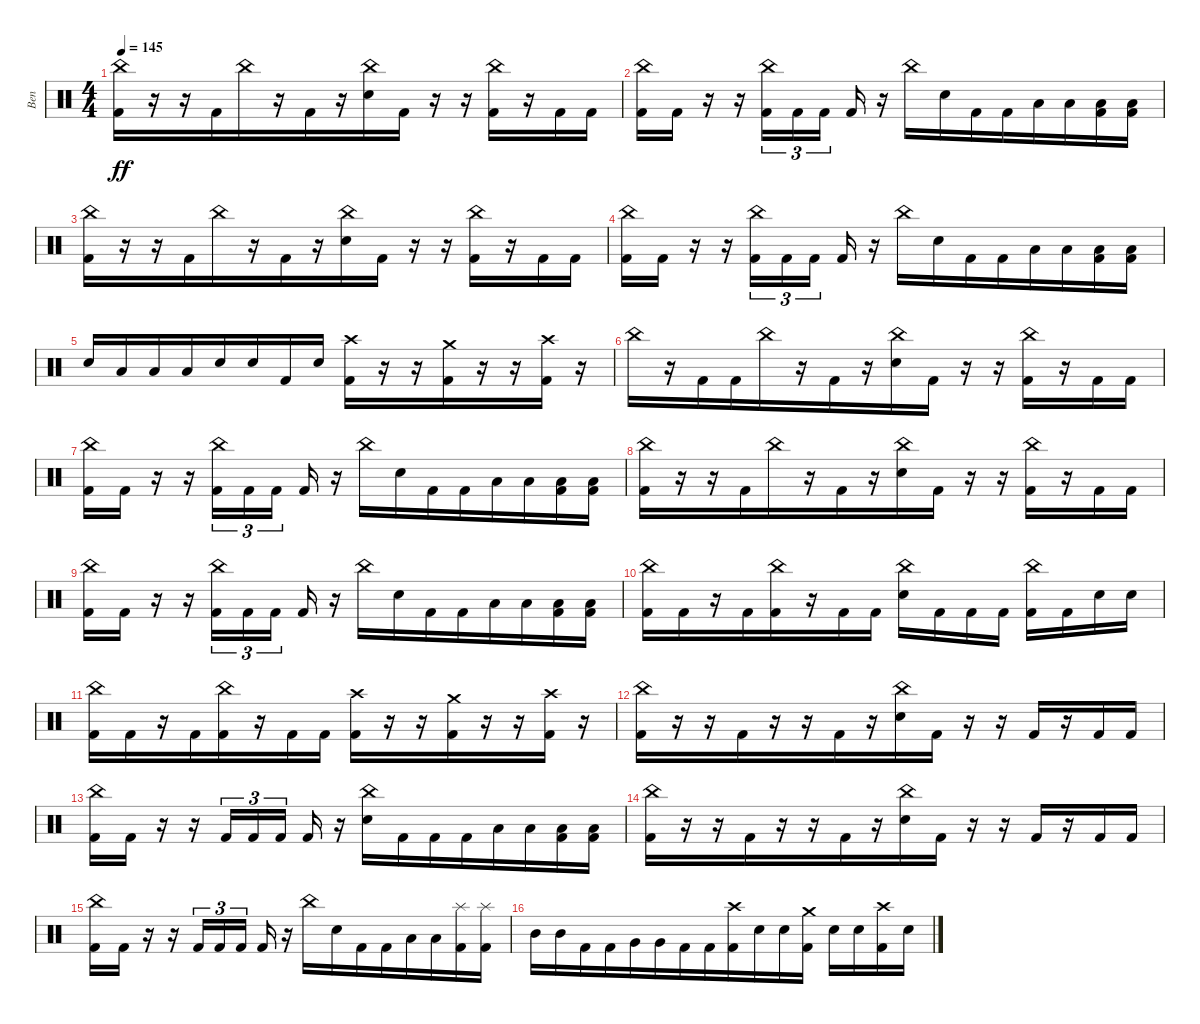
\track ("Ben" "Ben") {instrument percussion}
\staff {score}
\articulation defaults
\ts (4 4)
\tempo 145
\clef neutral
\ks c
("Kick (hit) 2" "China (hit)").16{dy ff} r.16{beam merge} r.16{beam merge} "Kick (hit) 2".16{beam merge} "China (hit)".16 r.16{beam merge} "Kick (hit) 2".16{beam merge} r.16{beam merge} ("China (hit)" "Electric Snare (hit)").16{beam merge} "Kick (hit) 2".16 r.16{beam merge} r.16{beam merge} ("Kick (hit) 2" "China (hit)").16 r.16 "Kick (hit) 2".16{beam merge} "Kick (hit) 2".16 |
("Kick (hit) 2" "China (hit)").16{beam merge} "Kick (hit) 2".16 r.16{beam merge} r.16 ("Kick (hit) 2" "China (hit)").16{tu (3 2)} "Kick (hit) 2".16{tu (3 2) beam merge} "Kick (hit) 2".16{tu (3 2) beam splitsecondary} "Kick (hit) 2".16 r.16{beam merge} "China (hit)".16{beam merge} "Electric Snare (hit)".16{beam merge} "Kick (hit) 2".16 "Kick (hit) 2".16{beam merge} "Low Tom (hit)".16 "Low Tom (hit)".16{beam merge} ("Low Floor Tom (hit)" "Kick (hit) 2").16{beam merge} ("Low Floor Tom (hit)" "Kick (hit) 2").16 |
("Kick (hit) 2" "China (hit)").16 r.16{beam merge} r.16{beam merge} "Kick (hit) 2".16{beam merge} "China (hit)".16 r.16{beam merge} "Kick (hit) 2".16{beam merge} r.16{beam merge} ("China (hit)" "Electric Snare (hit)").16{beam merge} "Kick (hit) 2".16 r.16{beam merge} r.16{beam merge} ("Kick (hit) 2" "China (hit)").16 r.16 "Kick (hit) 2".16{beam merge} "Kick (hit) 2".16 |
("Kick (hit) 2" "China (hit)").16{beam merge} "Kick (hit) 2".16 r.16{beam merge} r.16 ("Kick (hit) 2" "China (hit)").16{tu (3 2)} "Kick (hit) 2".16{tu (3 2) beam merge} "Kick (hit) 2".16{tu (3 2) beam splitsecondary} "Kick (hit) 2".16 r.16{beam merge} "China (hit)".16{beam merge} "Electric Snare (hit)".16{beam merge} "Kick (hit) 2".16 "Kick (hit) 2".16{beam merge} "Low Tom (hit)".16 "Low Tom (hit)".16{beam merge} ("Low Floor Tom (hit)" "Kick (hit) 2").16{beam merge} ("Low Floor Tom (hit)" "Kick (hit) 2").16 |
"Electric Snare (hit)".16{beam merge} "Low Tom (hit)".16 "Low Tom (hit)".16{beam merge} "Low Floor Tom (hit)".16{beam merge} "Electric Snare (hit)".16{beam merge} "Electric Snare (hit)".16 "Kick (hit) 2".16{beam merge} "Electric Snare (hit)".16 ("Crash high (hit)" "Kick (hit) 2").16{beam merge} r.16 r.16 ("Crash medium (hit)" "Kick (hit) 2").16{beam merge} r.16{beam merge} r.16 ("Crash high (hit)" "Kick (hit) 2").16 r.16 |
"China (hit)".16 r.16{beam merge} "Kick (hit) 2".16{beam merge} "Kick (hit) 2".16{beam merge} "China (hit)".16 r.16{beam merge} "Kick (hit) 2".16{beam merge} r.16{beam merge} ("China (hit)" "Electric Snare (hit)").16{beam merge} "Kick (hit) 2".16 r.16{beam merge} r.16{beam merge} ("Kick (hit) 2" "China (hit)").16 r.16 "Kick (hit) 2".16{beam merge} "Kick (hit) 2".16 |
("Kick (hit) 2" "China (hit)").16{beam merge} "Kick (hit) 2".16 r.16{beam merge} r.16 ("Kick (hit) 2" "China (hit)").16{tu (3 2)} "Kick (hit) 2".16{tu (3 2) beam merge} "Kick (hit) 2".16{tu (3 2) beam splitsecondary} "Kick (hit) 2".16 r.16{beam merge} "China (hit)".16{beam merge} "Electric Snare (hit)".16{beam merge} "Kick (hit) 2".16 "Kick (hit) 2".16{beam merge} "Low Tom (hit)".16 "Low Tom (hit)".16{beam merge} ("Low Floor Tom (hit)" "Kick (hit) 2").16{beam merge} ("Low Floor Tom (hit)" "Kick (hit) 2").16 |
("Kick (hit) 2" "China (hit)").16 r.16{beam merge} r.16{beam merge} "Kick (hit) 2".16{beam merge} "China (hit)".16 r.16{beam merge} "Kick (hit) 2".16{beam merge} r.16{beam merge} ("China (hit)" "Electric Snare (hit)").16{beam merge} "Kick (hit) 2".16 r.16{beam merge} r.16{beam merge} ("Kick (hit) 2" "China (hit)").16 r.16 "Kick (hit) 2".16{beam merge} "Kick (hit) 2".16 |
("Kick (hit) 2" "China (hit)").16{beam merge} "Kick (hit) 2".16 r.16{beam merge} r.16 ("Kick (hit) 2" "China (hit)").16{tu (3 2)} "Kick (hit) 2".16{tu (3 2) beam merge} "Kick (hit) 2".16{tu (3 2) beam splitsecondary} "Kick (hit) 2".16 r.16{beam merge} "China (hit)".16{beam merge} "Electric Snare (hit)".16{beam merge} "Kick (hit) 2".16 "Kick (hit) 2".16{beam merge} "Low Tom (hit)".16 "Low Tom (hit)".16{beam merge} ("Low Floor Tom (hit)" "Kick (hit) 2").16{beam merge} ("Low Floor Tom (hit)" "Kick (hit) 2").16 |
("China (hit)" "Kick (hit) 2").16{beam merge} "Kick (hit) 2".16 r.16 "Kick (hit) 2".16{beam merge} ("China (hit)" "Kick (hit) 2").16 r.16 "Kick (hit) 2".16 "Kick (hit) 2".16 ("Electric Snare (hit)" "China (hit)").16{beam merge} "Kick (hit) 2".16 "Kick (hit) 2".16 "Kick (hit) 2".16 ("Kick (hit) 2" "China (hit)").16 "Kick (hit) 2".16 "Electric Snare (hit)".16 "Electric Snare (hit)".16 |
("China (hit)" "Kick (hit) 2").16{beam merge} "Kick (hit) 2".16 r.16 "Kick (hit) 2".16{beam merge} ("China (hit)" "Kick (hit) 2").16 r.16 "Kick (hit) 2".16 "Kick (hit) 2".16 ("Crash high (hit)" "Kick (hit) 2").16{beam merge} r.16 r.16 ("Crash medium (hit)" "Kick (hit) 2").16{beam merge} r.16{beam merge} r.16 ("Crash high (hit)" "Kick (hit) 2").16 r.16 |
("Kick (hit) 2" "China (hit)").16 r.16{beam merge} r.16{beam merge} "Kick (hit) 2".16{beam merge} r.16 r.16{beam merge} "Kick (hit) 2".16{beam merge} r.16{beam merge} ("China (hit)" "Electric Snare (hit)").16{beam merge} "Kick (hit) 2".16 r.16{beam merge} r.16{beam merge} "Kick (hit) 2".16 r.16 "Kick (hit) 2".16{beam merge} "Kick (hit) 2".16 |
("Kick (hit) 2" "China (hit)").16{beam merge} "Kick (hit) 2".16 r.16{beam merge} r.16 "Kick (hit) 2".16{tu (3 2)} "Kick (hit) 2".16{tu (3 2) beam merge} "Kick (hit) 2".16{tu (3 2) beam splitsecondary} "Kick (hit) 2".16 r.16{beam merge} ("Electric Snare (hit)" "China (hit)").16{beam merge} "Kick (hit) 2".16{beam merge} "Kick (hit) 2".16 "Kick (hit) 2".16{beam merge} "Low Tom (hit)".16 "Low Tom (hit)".16{beam merge} ("Low Floor Tom (hit)" "Kick (hit) 2").16{beam merge} ("Low Floor Tom (hit)" "Kick (hit) 2").16 |
("Kick (hit) 2" "China (hit)").16 r.16{beam merge} r.16{beam merge} "Kick (hit) 2".16{beam merge} r.16 r.16{beam merge} "Kick (hit) 2".16{beam merge} r.16{beam merge} ("China (hit)" "Electric Snare (hit)").16{beam merge} "Kick (hit) 2".16 r.16{beam merge} r.16{beam merge} "Kick (hit) 2".16 r.16 "Kick (hit) 2".16{beam merge} "Kick (hit) 2".16 |
("Kick (hit) 2" "China (hit)").16{beam merge} "Kick (hit) 2".16 r.16{beam merge} r.16 "Kick (hit) 2".16{tu (3 2)} "Kick (hit) 2".16{tu (3 2) beam merge} "Kick (hit) 2".16{tu (3 2) beam splitsecondary} "Kick (hit) 2".16 r.16{beam merge} "China (hit)".16{beam merge} "Electric Snare (hit)".16{beam merge} "Kick (hit) 2".16 "Kick (hit) 2".16{beam merge} "Low Tom (hit)".16 "Low Tom (hit)".16{beam merge} ("Splash (hit)" "Kick (hit) 2").16{beam merge} ("Splash (hit)" "Kick (hit) 2").16 |
"Mid Tom (hit)".16{beam merge} "Mid Tom (hit)".16 "Kick (hit) 2".16{beam merge} "Kick (hit) 2".16{beam merge} "Very Low Tom (hit)".16{beam merge} "Very Low Tom (hit)".16 "Kick (hit) 2".16{beam merge} "Kick (hit) 2".16{beam merge} ("Crash high (hit)" "Kick (hit) 2").16{beam merge} "Electric Snare (hit)".16{beam merge} "Electric Snare (hit)".16{beam merge} ("Crash medium (hit)" "Kick (hit) 2").16 "Electric Snare (hit)".16 "Electric Snare (hit)".16{beam merge} ("Crash high (hit)" "Kick (hit) 2").16 "Electric Snare (hit)".16
